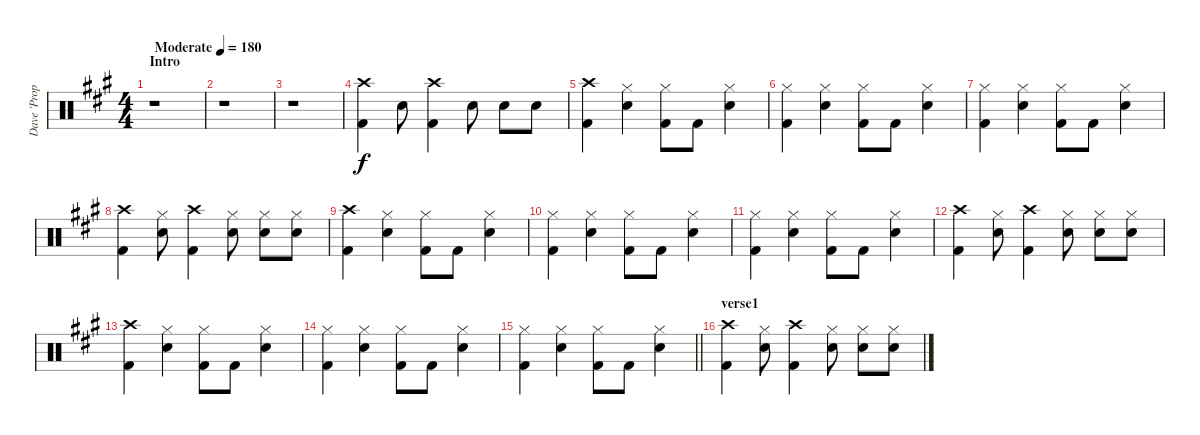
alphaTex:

\track ("Dave 'Proper' Caution" "Dave 'Prop") {instrument percussion}
\staff {score}
\articulation defaults
\ts (4 4)
\section ("" "Intro")
\tempo (180 "Moderate")
\clef neutral
\ks a
r.1{dy f} |
r.1 |
r.1 |
("Crash high (hit)" "Kick (hit) 2").4 "Electric Snare (hit)".8 ("Crash high (hit)" "Kick (hit) 2").4 "Electric Snare (hit)".8 "Electric Snare (hit)".8 "Electric Snare (hit)".8 |
("Crash high (hit)" "Kick (hit) 2").4 ("Hi-Hat (closed)" "Electric Snare (hit)").4 ("Hi-Hat (closed)" "Kick (hit) 2").8 "Kick (hit) 2".8 ("Hi-Hat (closed)" "Electric Snare (hit)").4 |
("Hi-Hat (closed)" "Kick (hit) 2").4 ("Hi-Hat (closed)" "Electric Snare (hit)").4 ("Hi-Hat (closed)" "Kick (hit) 2").8 "Kick (hit) 2".8 ("Hi-Hat (closed)" "Electric Snare (hit)").4 |
("Hi-Hat (closed)" "Kick (hit) 2").4 ("Hi-Hat (closed)" "Electric Snare (hit)").4 ("Hi-Hat (closed)" "Kick (hit) 2").8 "Kick (hit) 2".8 ("Hi-Hat (closed)" "Electric Snare (hit)").4 |
("Crash high (hit)" "Kick (hit) 2").4 ("Hi-Hat (closed)" "Electric Snare (hit)").8 ("Crash high (hit)" "Kick (hit) 2").4 ("Hi-Hat (closed)" "Electric Snare (hit)").8 ("Hi-Hat (closed)" "Electric Snare (hit)").8 ("Hi-Hat (closed)" "Electric Snare (hit)").8 |
("Crash high (hit)" "Kick (hit) 2").4 ("Hi-Hat (closed)" "Electric Snare (hit)").4 ("Hi-Hat (closed)" "Kick (hit) 2").8 "Kick (hit) 2".8 ("Hi-Hat (closed)" "Electric Snare (hit)").4 |
("Hi-Hat (closed)" "Kick (hit) 2").4 ("Hi-Hat (closed)" "Electric Snare (hit)").4 ("Hi-Hat (closed)" "Kick (hit) 2").8 "Kick (hit) 2".8 ("Hi-Hat (closed)" "Electric Snare (hit)").4 |
("Hi-Hat (closed)" "Kick (hit) 2").4 ("Hi-Hat (closed)" "Electric Snare (hit)").4 ("Hi-Hat (closed)" "Kick (hit) 2").8 "Kick (hit) 2".8 ("Hi-Hat (closed)" "Electric Snare (hit)").4 |
("Crash high (hit)" "Kick (hit) 2").4 ("Hi-Hat (closed)" "Electric Snare (hit)").8 ("Crash high (hit)" "Kick (hit) 2").4 ("Hi-Hat (closed)" "Electric Snare (hit)").8 ("Hi-Hat (closed)" "Electric Snare (hit)").8 ("Hi-Hat (closed)" "Electric Snare (hit)").8 |
("Crash high (hit)" "Kick (hit) 2").4 ("Hi-Hat (closed)" "Electric Snare (hit)").4 ("Hi-Hat (closed)" "Kick (hit) 2").8 "Kick (hit) 2".8 ("Hi-Hat (closed)" "Electric Snare (hit)").4 |
("Hi-Hat (closed)" "Kick (hit) 2").4 ("Hi-Hat (closed)" "Electric Snare (hit)").4 ("Hi-Hat (closed)" "Kick (hit) 2").8 "Kick (hit) 2".8 ("Hi-Hat (closed)" "Electric Snare (hit)").4 |
\barLineRight lightlight
("Hi-Hat (closed)" "Kick (hit) 2").4 ("Hi-Hat (closed)" "Electric Snare (hit)").4 ("Hi-Hat (closed)" "Kick (hit) 2").8 "Kick (hit) 2".8 ("Hi-Hat (closed)" "Electric Snare (hit)").4 |
\section ("" "verse1")
("Crash high (hit)" "Kick (hit) 2").4 ("Hi-Hat (closed)" "Electric Snare (hit)").8 ("Crash high (hit)" "Kick (hit) 2").4 ("Hi-Hat (closed)" "Electric Snare (hit)").8 ("Hi-Hat (closed)" "Electric Snare (hit)").8 ("Hi-Hat (closed)" "Electric Snare (hit)").8
